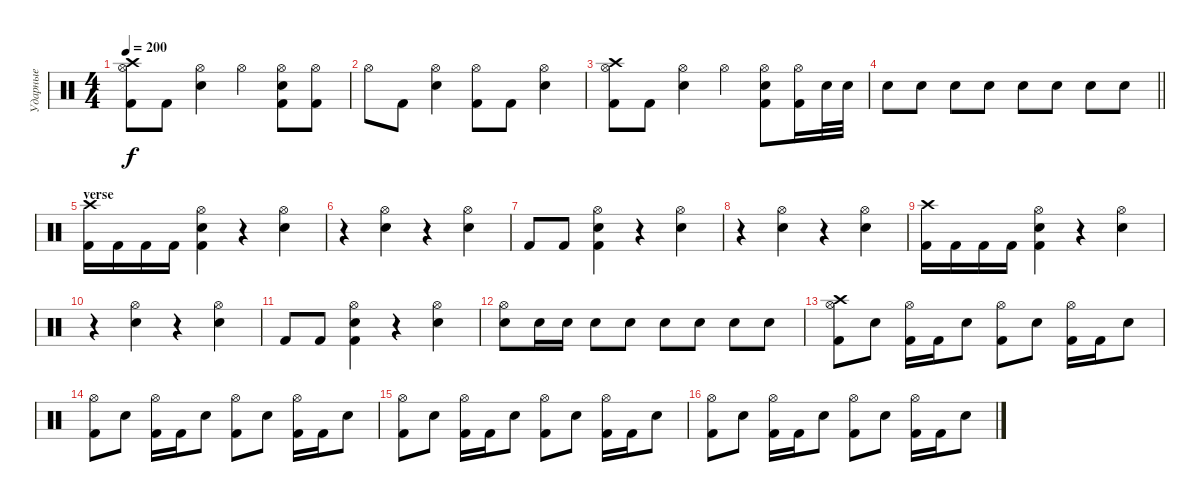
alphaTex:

\track ("Ударные" "Ударные") {instrument percussion}
\staff {score}
\articulation defaults
\ts (4 4)
\tempo 200
\clef neutral
\ks c
("Crash high (hit)" "Hi-Hat (open)" "Kick (hit) 2").8{dy f} "Kick (hit) 2".8 ("Hi-Hat (open)" "Electric Snare (hit)").4 "Hi-Hat (open)".4 ("Hi-Hat (open)" "Electric Snare (hit)" "Kick (hit) 2").8 ("Hi-Hat (open)" "Kick (hit) 2").8 |
"Hi-Hat (open)".8 "Kick (hit) 2".8 ("Hi-Hat (open)" "Electric Snare (hit)").4 ("Hi-Hat (open)" "Kick (hit) 2").8 "Kick (hit) 2".8 ("Hi-Hat (open)" "Electric Snare (hit)").4 |
("Hi-Hat (open)" "Crash high (hit)" "Kick (hit) 2").8 "Kick (hit) 2".8 ("Hi-Hat (open)" "Electric Snare (hit)").4 "Hi-Hat (open)".4 ("Hi-Hat (open)" "Electric Snare (hit)" "Kick (hit) 2").8 ("Hi-Hat (open)" "Kick (hit) 2").16 "Electric Snare (hit)".32 "Electric Snare (hit)".32 |
\barLineRight lightlight "Electric Snare (hit)".8 "Electric Snare (hit)".8 "Electric Snare (hit)".8 "Electric Snare (hit)".8 "Electric Snare (hit)".8 "Electric Snare (hit)".8 "Electric Snare (hit)".8 "Electric Snare (hit)".8
|
\section ("" "verse")
("Crash high (hit)" "Kick (hit) 2").16 "Kick (hit) 2".16 "Kick (hit) 2".16 "Kick (hit) 2".16 ("Hi-Hat (open)" "Electric Snare (hit)" "Kick (hit) 2").4 r.4 ("Hi-Hat (open)" "Electric Snare (hit)").4 |
r.4 ("Hi-Hat (open)" "Electric Snare (hit)").4 r.4 ("Hi-Hat (open)" "Electric Snare (hit)").4 |
"Kick (hit) 2".8 "Kick (hit) 2".8 ("Hi-Hat (open)" "Electric Snare (hit)" "Kick (hit) 2").4 r.4 ("Hi-Hat (open)" "Electric Snare (hit)").4 |
r.4 ("Hi-Hat (open)" "Electric Snare (hit)").4 r.4 ("Hi-Hat (open)" "Electric Snare (hit)").4 |
("Crash high (hit)" "Kick (hit) 2").16 "Kick (hit) 2".16 "Kick (hit) 2".16 "Kick (hit) 2".16 ("Hi-Hat (open)" "Electric Snare (hit)" "Kick (hit) 2").4 r.4 ("Hi-Hat (open)" "Electric Snare (hit)").4 |
r.4 ("Hi-Hat (open)" "Electric Snare (hit)").4 r.4 ("Hi-Hat (open)" "Electric Snare (hit)").4 |
"Kick (hit) 2".8 "Kick (hit) 2".8 ("Hi-Hat (open)" "Electric Snare (hit)" "Kick (hit) 2").4 r.4 ("Hi-Hat (open)" "Electric Snare (hit)").4 |
("Hi-Hat (open)" "Electric Snare (hit)").8 "Electric Snare (hit)".16 "Electric Snare (hit)".16 "Electric Snare (hit)".8 "Electric Snare (hit)".8 "Electric Snare (hit)".8 "Electric Snare (hit)".8 "Electric Snare (hit)".8 "Electric Snare (hit)".8 |
("Hi-Hat (open)" "Crash high (hit)" "Kick (hit) 2").8 "Electric Snare (hit)".8 ("Hi-Hat (open)" "Kick (hit) 2").16 "Kick (hit) 2".16 "Electric Snare (hit)".8 ("Hi-Hat (open)" "Kick (hit) 2").8 "Electric Snare (hit)".8 ("Hi-Hat (open)" "Kick (hit) 2").16 "Kick (hit) 2".16 "Electric Snare (hit)".8 |
("Hi-Hat (open)" "Kick (hit) 2").8 "Electric Snare (hit)".8 ("Hi-Hat (open)" "Kick (hit) 2").16 "Kick (hit) 2".16 "Electric Snare (hit)".8 ("Hi-Hat (open)" "Kick (hit) 2").8 "Electric Snare (hit)".8 ("Hi-Hat (open)" "Kick (hit) 2").16 "Kick (hit) 2".16 "Electric Snare (hit)".8 |
("Hi-Hat (open)" "Kick (hit) 2").8 "Electric Snare (hit)".8 ("Hi-Hat (open)" "Kick (hit) 2").16 "Kick (hit) 2".16 "Electric Snare (hit)".8 ("Hi-Hat (open)" "Kick (hit) 2").8 "Electric Snare (hit)".8 ("Hi-Hat (open)" "Kick (hit) 2").16 "Kick (hit) 2".16 "Electric Snare (hit)".8 |
("Hi-Hat (open)" "Kick (hit) 2").8 "Electric Snare (hit)".8 ("Hi-Hat (open)" "Kick (hit) 2").16 "Kick (hit) 2".16 "Electric Snare (hit)".8 ("Hi-Hat (open)" "Kick (hit) 2").8 "Electric Snare (hit)".8 ("Hi-Hat (open)" "Kick (hit) 2").16 "Kick (hit) 2".16 "Electric Snare (hit)".8
